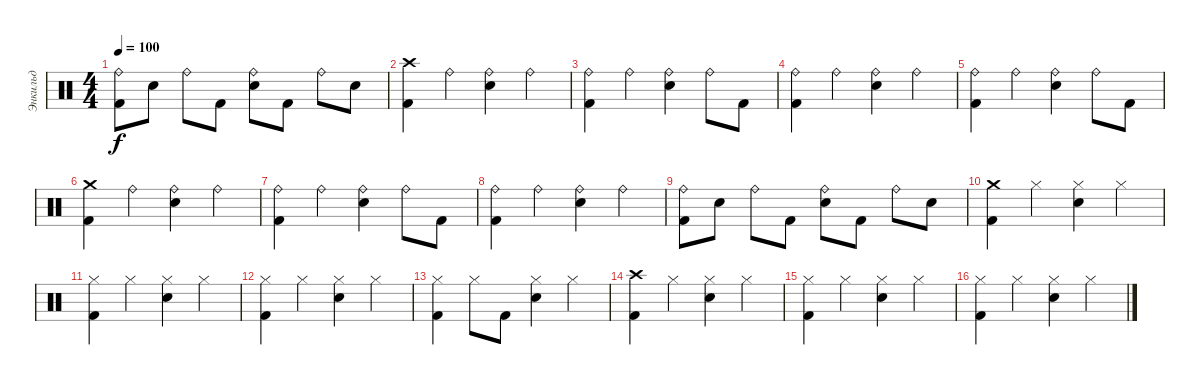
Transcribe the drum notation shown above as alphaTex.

\track ("Энкильд" "Энкильд") {instrument percussion}
\staff {score}
\articulation defaults
\ts (4 4)
\tempo 100
\clef neutral
\ks c
("Kick (hit) 2" "Ride (bell)").8{dy f} "Snare (hit) 2".8 "Ride (bell)".8 "Kick (hit) 2".8 ("Ride (bell)" "Snare (hit) 2").8 "Kick (hit) 2".8 "Ride (bell)".8 "Snare (hit) 2".8 |
("Kick (hit) 2" "Crash high (hit)").4 "Ride (bell)".4 ("Snare (hit) 2" "Ride (bell)").4 "Ride (bell)".4 |
("Ride (bell)" "Kick (hit) 2").4 "Ride (bell)".4 ("Ride (bell)" "Snare (hit) 2").4 "Ride (bell)".8 "Kick (hit) 2".8 |
("Ride (bell)" "Kick (hit) 2").4 "Ride (bell)".4 ("Snare (hit) 2" "Ride (bell)").4 "Ride (bell)".4 |
("Ride (bell)" "Kick (hit) 2").4 "Ride (bell)".4 ("Ride (bell)" "Snare (hit) 2").4 "Ride (bell)".8 "Kick (hit) 2".8 |
("Kick (hit) 2" "Crash medium (hit)").4 "Ride (bell)".4 ("Snare (hit) 2" "Ride (bell)").4 "Ride (bell)".4 |
("Ride (bell)" "Kick (hit) 2").4 "Ride (bell)".4 ("Ride (bell)" "Snare (hit) 2").4 "Ride (bell)".8 "Kick (hit) 2".8 |
("Ride (bell)" "Kick (hit) 2").4 "Ride (bell)".4 ("Snare (hit) 2" "Ride (bell)").4 "Ride (bell)".4 |
("Kick (hit) 2" "Ride (bell)").8 "Snare (hit) 2".8 "Ride (bell)".8 "Kick (hit) 2".8 ("Ride (bell)" "Snare (hit) 2").8 "Kick (hit) 2".8 "Ride (bell)".8 "Snare (hit) 2".8 |
("Kick (hit) 2" "Crash medium (hit)").4 "Hi-Hat (closed)".4 ("Snare (hit) 2" "Hi-Hat (closed)").4 "Hi-Hat (closed)".4 |
("Kick (hit) 2" "Hi-Hat (closed)").4 "Hi-Hat (closed)".4 ("Snare (hit) 2" "Hi-Hat (closed)").4 "Hi-Hat (closed)".4 |
("Kick (hit) 2" "Hi-Hat (closed)").4 "Hi-Hat (closed)".4 ("Snare (hit) 2" "Hi-Hat (closed)").4 "Hi-Hat (closed)".4 |
("Kick (hit) 2" "Hi-Hat (closed)").4 "Hi-Hat (closed)".8 "Kick (hit) 2".8 ("Snare (hit) 2" "Hi-Hat (closed)").4 "Hi-Hat (closed)".4 |
("Kick (hit) 2" "Crash high (hit)").4 "Hi-Hat (closed)".4 ("Snare (hit) 2" "Hi-Hat (closed)").4 "Hi-Hat (closed)".4 |
("Kick (hit) 2" "Hi-Hat (closed)").4 "Hi-Hat (closed)".4 ("Snare (hit) 2" "Hi-Hat (closed)").4 "Hi-Hat (closed)".4 |
("Kick (hit) 2" "Hi-Hat (closed)").4 "Hi-Hat (closed)".4 ("Snare (hit) 2" "Hi-Hat (closed)").4 "Hi-Hat (closed)".4
